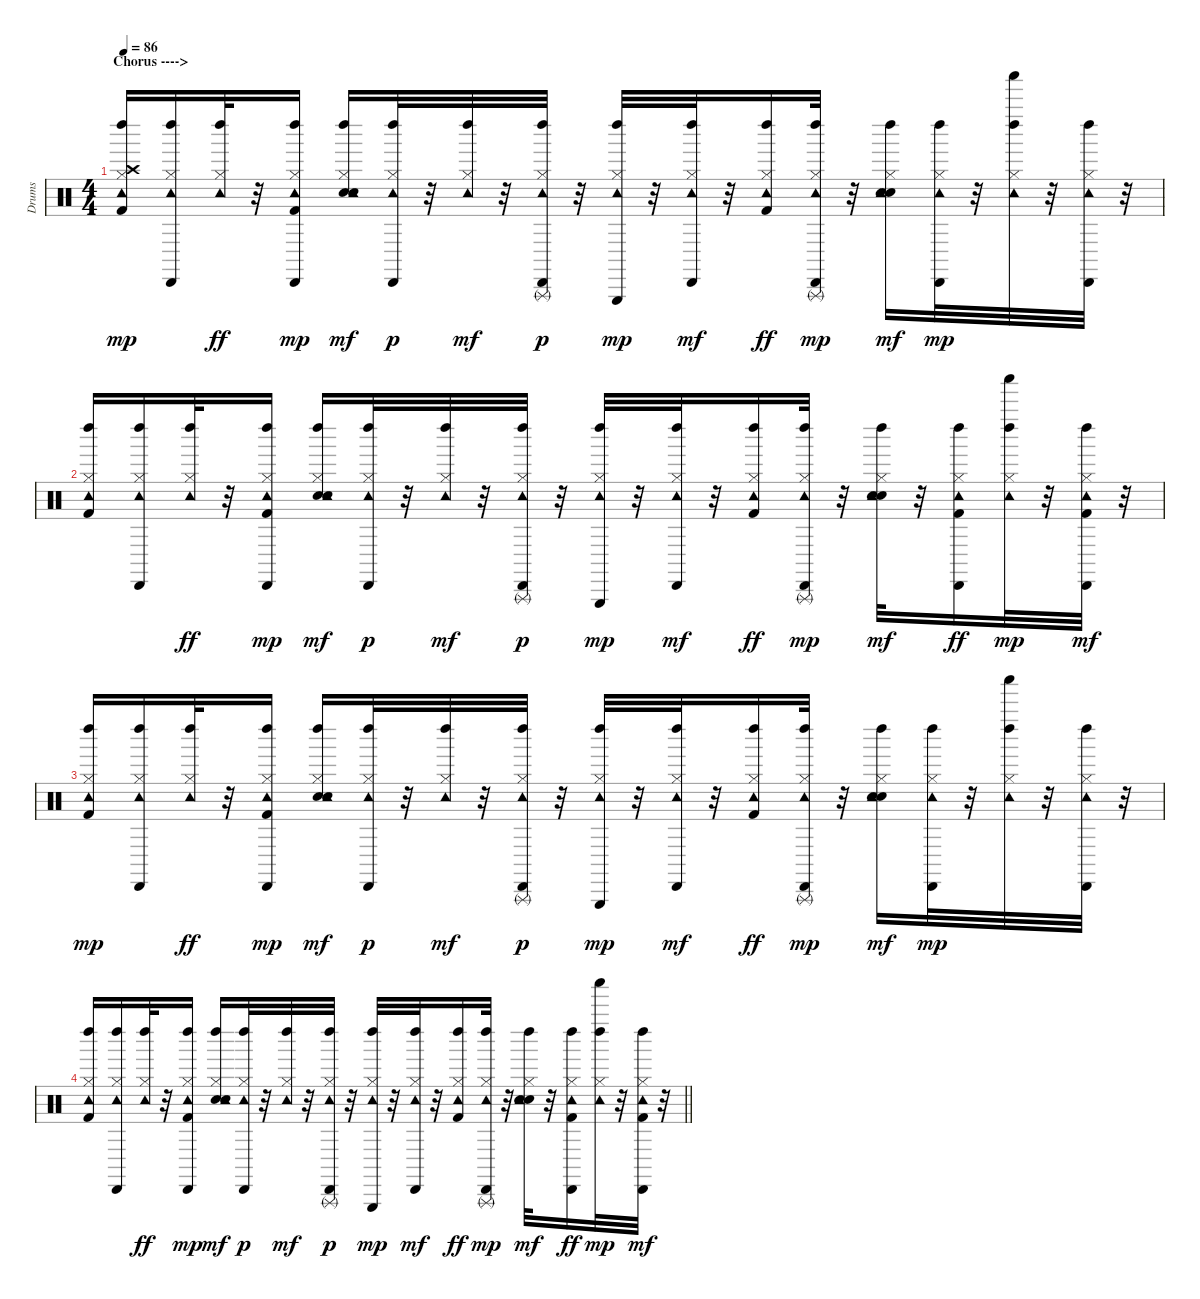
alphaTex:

\track ("Drums" "Drums") {instrument percussion}
\staff {score}
\articulation defaults
\ts (4 4)
\section ("" "Chorus ---->")
\tempo 86
\clef neutral
\ks c
("Hi-Hat (closed)" "Crash high (hit)" "Tambourine (hit)" "Left Maraca (hit)" "Kick (hit) 2").16{dy mp} ("Hi-Hat (closed)" "Tambourine (hit)" "Cabasa (hit)" "Left Maraca (hit)").16 ("Hi-Hat (closed)" "Tambourine (hit)" "Left Maraca (hit)").32{dy ff} r.32 ("Hi-Hat (closed)" "Tambourine (hit)" "Cabasa (hit)" "Left Maraca (hit)" "Kick (hit) 2").16{dy mp} ("Hi-Hat (closed)" "Hand Clap (hit)" "Tambourine (hit)" "Left Maraca (hit)" "Electric Snare (hit)").16{dy mf} ("Hi-Hat (closed)" "Tambourine (hit)" "Cabasa (hit)" "Left Maraca (hit)").32{dy p} r.32 ("Hi-Hat (closed)" "Tambourine (hit)" "Left Maraca (hit)").32{dy mf} r.32 ("Hi-Hat (closed)" "Tambourine (hit)" "Cabasa (hit)" "Left Maraca (hit)" "Triangle (rnute)").32{dy p} r.32 ("Hi-Hat (closed)" "Tambourine (hit)" "Left Maraca (hit)" "Triangle (hit)").32{dy mp} r.32 ("Hi-Hat (closed)" "Tambourine (hit)" "Cabasa (hit)" "Left Maraca (hit)").32{dy mf} r.32 ("Hi-Hat (closed)" "Tambourine (hit)" "Left Maraca (hit)" "Kick (hit) 2").16{dy ff} ("Hi-Hat (closed)" "Tambourine (hit)" "Cabasa (hit)" "Left Maraca (hit)" "Triangle (rnute)").32{dy mp} r.32 ("Hi-Hat (closed)" "Hand Clap (hit)" "Tambourine (hit)" "Left Maraca (hit)" "Electric Snare (hit)").16{dy mf} ("Hi-Hat (closed)" "Tambourine (hit)" "Cabasa (hit)" "Left Maraca (hit)").32{dy mp} r.32 ("Hi-Hat (closed)" "Tambourine (hit)" "Left Maraca (hit)" "Shaker (hit)").32 r.32 ("Hi-Hat (closed)" "Tambourine (hit)" "Cabasa (hit)" "Left Maraca (hit)").32 r.32 |
("Hi-Hat (closed)" "Tambourine (hit)" "Left Maraca (hit)" "Kick (hit) 2").16 ("Hi-Hat (closed)" "Tambourine (hit)" "Cabasa (hit)" "Left Maraca (hit)").16 ("Hi-Hat (closed)" "Tambourine (hit)" "Left Maraca (hit)").32{dy ff} r.32 ("Hi-Hat (closed)" "Tambourine (hit)" "Cabasa (hit)" "Left Maraca (hit)" "Kick (hit) 2").16{dy mp} ("Hi-Hat (closed)" "Hand Clap (hit)" "Tambourine (hit)" "Left Maraca (hit)" "Electric Snare (hit)").16{dy mf} ("Hi-Hat (closed)" "Tambourine (hit)" "Cabasa (hit)" "Left Maraca (hit)").32{dy p} r.32 ("Hi-Hat (closed)" "Tambourine (hit)" "Left Maraca (hit)").32{dy mf} r.32 ("Hi-Hat (closed)" "Tambourine (hit)" "Cabasa (hit)" "Left Maraca (hit)" "Triangle (rnute)").32{dy p} r.32 ("Hi-Hat (closed)" "Tambourine (hit)" "Left Maraca (hit)" "Triangle (hit)").32{dy mp} r.32 ("Hi-Hat (closed)" "Tambourine (hit)" "Cabasa (hit)" "Left Maraca (hit)").32{dy mf} r.32 ("Hi-Hat (closed)" "Tambourine (hit)" "Left Maraca (hit)" "Kick (hit) 2").16{dy ff} ("Hi-Hat (closed)" "Tambourine (hit)" "Cabasa (hit)" "Left Maraca (hit)" "Triangle (rnute)").32{dy mp} r.32 ("Hi-Hat (closed)" "Hand Clap (hit)" "Tambourine (hit)" "Left Maraca (hit)" "Electric Snare (hit)").32{dy mf} r.32 ("Hi-Hat (closed)" "Tambourine (hit)" "Cabasa (hit)" "Left Maraca (hit)" "Kick (hit) 2").16{dy ff} ("Hi-Hat (closed)" "Tambourine (hit)" "Left Maraca (hit)" "Shaker (hit)").32{dy mp} r.32 ("Hi-Hat (closed)" "Tambourine (hit)" "Cabasa (hit)" "Left Maraca (hit)" "Kick (hit) 2").32{dy mf} r.32 |
("Hi-Hat (closed)" "Tambourine (hit)" "Left Maraca (hit)" "Kick (hit) 2").16{dy mp} ("Hi-Hat (closed)" "Tambourine (hit)" "Cabasa (hit)" "Left Maraca (hit)").16 ("Hi-Hat (closed)" "Tambourine (hit)" "Left Maraca (hit)").32{dy ff} r.32 ("Hi-Hat (closed)" "Tambourine (hit)" "Cabasa (hit)" "Left Maraca (hit)" "Kick (hit) 2").16{dy mp} ("Hi-Hat (closed)" "Hand Clap (hit)" "Tambourine (hit)" "Left Maraca (hit)" "Electric Snare (hit)").16{dy mf} ("Hi-Hat (closed)" "Tambourine (hit)" "Cabasa (hit)" "Left Maraca (hit)").32{dy p} r.32 ("Hi-Hat (closed)" "Tambourine (hit)" "Left Maraca (hit)").32{dy mf} r.32 ("Hi-Hat (closed)" "Tambourine (hit)" "Cabasa (hit)" "Left Maraca (hit)" "Triangle (rnute)").32{dy p} r.32 ("Hi-Hat (closed)" "Tambourine (hit)" "Left Maraca (hit)" "Triangle (hit)").32{dy mp} r.32 ("Hi-Hat (closed)" "Tambourine (hit)" "Cabasa (hit)" "Left Maraca (hit)").32{dy mf} r.32 ("Hi-Hat (closed)" "Tambourine (hit)" "Left Maraca (hit)" "Kick (hit) 2").16{dy ff} ("Hi-Hat (closed)" "Tambourine (hit)" "Cabasa (hit)" "Left Maraca (hit)" "Triangle (rnute)").32{dy mp} r.32 ("Hi-Hat (closed)" "Hand Clap (hit)" "Tambourine (hit)" "Left Maraca (hit)" "Electric Snare (hit)").16{dy mf} ("Hi-Hat (closed)" "Tambourine (hit)" "Cabasa (hit)" "Left Maraca (hit)").32{dy mp} r.32 ("Hi-Hat (closed)" "Tambourine (hit)" "Left Maraca (hit)" "Shaker (hit)").32 r.32 ("Hi-Hat (closed)" "Tambourine (hit)" "Cabasa (hit)" "Left Maraca (hit)").32 r.32 |
\barLineRight lightlight
("Hi-Hat (closed)" "Tambourine (hit)" "Left Maraca (hit)" "Kick (hit) 2").16 ("Hi-Hat (closed)" "Tambourine (hit)" "Cabasa (hit)" "Left Maraca (hit)").16 ("Hi-Hat (closed)" "Tambourine (hit)" "Left Maraca (hit)").32{dy ff} r.32 ("Hi-Hat (closed)" "Tambourine (hit)" "Cabasa (hit)" "Left Maraca (hit)" "Kick (hit) 2").16{dy mp} ("Hi-Hat (closed)" "Hand Clap (hit)" "Tambourine (hit)" "Left Maraca (hit)" "Electric Snare (hit)").16{dy mf} ("Hi-Hat (closed)" "Tambourine (hit)" "Cabasa (hit)" "Left Maraca (hit)").32{dy p} r.32 ("Hi-Hat (closed)" "Tambourine (hit)" "Left Maraca (hit)").32{dy mf} r.32 ("Hi-Hat (closed)" "Tambourine (hit)" "Cabasa (hit)" "Left Maraca (hit)" "Triangle (rnute)").32{dy p} r.32 ("Hi-Hat (closed)" "Tambourine (hit)" "Left Maraca (hit)" "Triangle (hit)").32{dy mp} r.32 ("Hi-Hat (closed)" "Tambourine (hit)" "Cabasa (hit)" "Left Maraca (hit)").32{dy mf} r.32 ("Hi-Hat (closed)" "Tambourine (hit)" "Left Maraca (hit)" "Kick (hit) 2").16{dy ff} ("Hi-Hat (closed)" "Tambourine (hit)" "Cabasa (hit)" "Left Maraca (hit)" "Triangle (rnute)").32{dy mp} r.32 ("Hi-Hat (closed)" "Hand Clap (hit)" "Tambourine (hit)" "Left Maraca (hit)" "Electric Snare (hit)").32{dy mf} r.32 ("Hi-Hat (closed)" "Tambourine (hit)" "Cabasa (hit)" "Left Maraca (hit)" "Kick (hit) 2").16{dy ff} ("Hi-Hat (closed)" "Tambourine (hit)" "Left Maraca (hit)" "Shaker (hit)").32{dy mp} r.32 ("Hi-Hat (closed)" "Tambourine (hit)" "Cabasa (hit)" "Left Maraca (hit)" "Kick (hit) 2").32{dy mf} r.32
